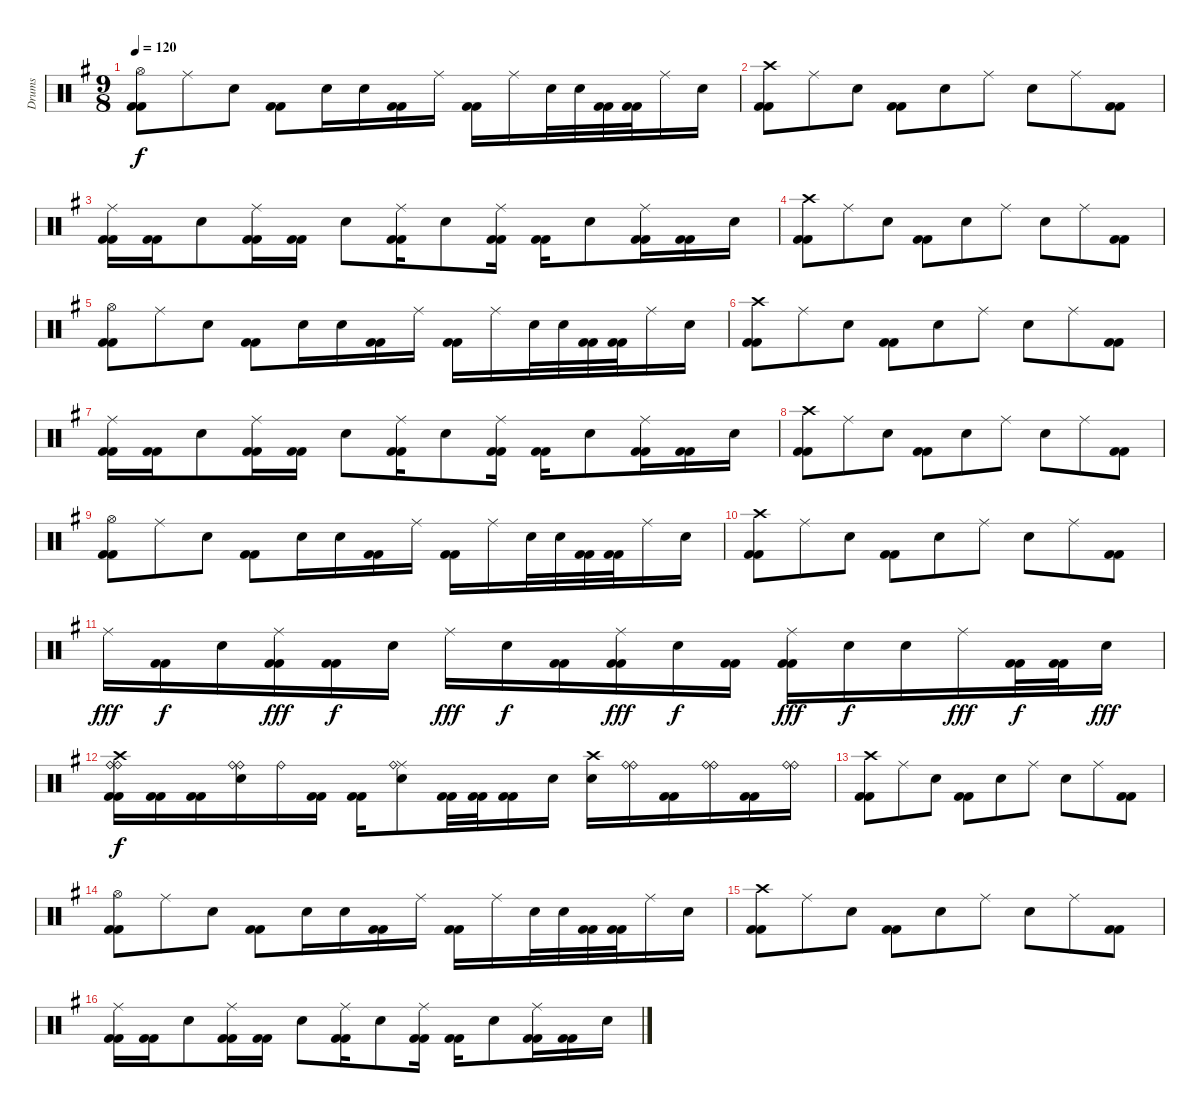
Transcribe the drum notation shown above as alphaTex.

\track ("Drums" "Drums") {instrument percussion}
\staff {score}
\articulation defaults
\ts (9 8)
\tempo 120
\clef neutral
\ks g
("Hi-Hat (open)" "Kick (hit) 2" "Kick (hit) 2").8{dy f} "Ride (middle)".8 "Electric Snare (hit)".8 ("Kick (hit) 2" "Kick (hit) 2").8 "Electric Snare (hit)".16 "Electric Snare (hit)".16 ("Kick (hit) 2" "Kick (hit) 2").16 "Ride (middle)".16 ("Kick (hit) 2" "Kick (hit) 2").16 "Ride (middle)".16 "Electric Snare (hit)".32 "Electric Snare (hit)".32 ("Kick (hit) 2" "Kick (hit) 2").32 ("Kick (hit) 2" "Kick (hit) 2").32 "Ride (middle)".16 "Electric Snare (hit)".16 |
("Crash high (hit)" "Kick (hit) 2" "Kick (hit) 2").8 "Ride (middle)".8 "Electric Snare (hit)".8 ("Kick (hit) 2" "Kick (hit) 2").8 "Electric Snare (hit)".8 "Ride (middle)".8 "Electric Snare (hit)".8 "Ride (middle)".8 ("Kick (hit) 2" "Kick (hit) 2").8 |
("Ride (middle)" "Kick (hit) 2" "Kick (hit) 2").16 ("Kick (hit) 2" "Kick (hit) 2").16 "Electric Snare (hit)".8 ("Ride (middle)" "Kick (hit) 2" "Kick (hit) 2").16 ("Kick (hit) 2" "Kick (hit) 2").16 "Electric Snare (hit)".8 ("Ride (middle)" "Kick (hit) 2" "Kick (hit) 2").16 "Electric Snare (hit)".8 ("Ride (middle)" "Kick (hit) 2" "Kick (hit) 2").16 ("Kick (hit) 2" "Kick (hit) 2").16 "Electric Snare (hit)".8 ("Ride (middle)" "Kick (hit) 2" "Kick (hit) 2").16 ("Kick (hit) 2" "Kick (hit) 2").16 "Electric Snare (hit)".16 |
("Crash high (hit)" "Kick (hit) 2" "Kick (hit) 2").8 "Ride (middle)".8 "Electric Snare (hit)".8 ("Kick (hit) 2" "Kick (hit) 2").8 "Electric Snare (hit)".8 "Ride (middle)".8 "Electric Snare (hit)".8 "Ride (middle)".8 ("Kick (hit) 2" "Kick (hit) 2").8 |
("Hi-Hat (open)" "Kick (hit) 2" "Kick (hit) 2").8 "Ride (middle)".8 "Electric Snare (hit)".8 ("Kick (hit) 2" "Kick (hit) 2").8 "Electric Snare (hit)".16 "Electric Snare (hit)".16 ("Kick (hit) 2" "Kick (hit) 2").16 "Ride (middle)".16 ("Kick (hit) 2" "Kick (hit) 2").16 "Ride (middle)".16 "Electric Snare (hit)".32 "Electric Snare (hit)".32 ("Kick (hit) 2" "Kick (hit) 2").32 ("Kick (hit) 2" "Kick (hit) 2").32 "Ride (middle)".16 "Electric Snare (hit)".16 |
("Crash high (hit)" "Kick (hit) 2" "Kick (hit) 2").8 "Ride (middle)".8 "Electric Snare (hit)".8 ("Kick (hit) 2" "Kick (hit) 2").8 "Electric Snare (hit)".8 "Ride (middle)".8 "Electric Snare (hit)".8 "Ride (middle)".8 ("Kick (hit) 2" "Kick (hit) 2").8 |
("Ride (middle)" "Kick (hit) 2" "Kick (hit) 2").16 ("Kick (hit) 2" "Kick (hit) 2").16 "Electric Snare (hit)".8 ("Ride (middle)" "Kick (hit) 2" "Kick (hit) 2").16 ("Kick (hit) 2" "Kick (hit) 2").16 "Electric Snare (hit)".8 ("Ride (middle)" "Kick (hit) 2" "Kick (hit) 2").16 "Electric Snare (hit)".8 ("Ride (middle)" "Kick (hit) 2" "Kick (hit) 2").16 ("Kick (hit) 2" "Kick (hit) 2").16 "Electric Snare (hit)".8 ("Ride (middle)" "Kick (hit) 2" "Kick (hit) 2").16 ("Kick (hit) 2" "Kick (hit) 2").16 "Electric Snare (hit)".16 |
("Crash high (hit)" "Kick (hit) 2" "Kick (hit) 2").8 "Ride (middle)".8 "Electric Snare (hit)".8 ("Kick (hit) 2" "Kick (hit) 2").8 "Electric Snare (hit)".8 "Ride (middle)".8 "Electric Snare (hit)".8 "Ride (middle)".8 ("Kick (hit) 2" "Kick (hit) 2").8 |
("Hi-Hat (open)" "Kick (hit) 2" "Kick (hit) 2").8 "Ride (middle)".8 "Electric Snare (hit)".8 ("Kick (hit) 2" "Kick (hit) 2").8 "Electric Snare (hit)".16 "Electric Snare (hit)".16 ("Kick (hit) 2" "Kick (hit) 2").16 "Ride (middle)".16 ("Kick (hit) 2" "Kick (hit) 2").16 "Ride (middle)".16 "Electric Snare (hit)".32 "Electric Snare (hit)".32 ("Kick (hit) 2" "Kick (hit) 2").32 ("Kick (hit) 2" "Kick (hit) 2").32 "Ride (middle)".16 "Electric Snare (hit)".16 |
("Crash high (hit)" "Kick (hit) 2" "Kick (hit) 2").8 "Ride (middle)".8 "Electric Snare (hit)".8 ("Kick (hit) 2" "Kick (hit) 2").8 "Electric Snare (hit)".8 "Ride (middle)".8 "Electric Snare (hit)".8 "Ride (middle)".8 ("Kick (hit) 2" "Kick (hit) 2").8 |
"Ride (middle)".16{dy fff volume 16} ("Kick (hit) 2" "Kick (hit) 2").16{dy f} "Electric Snare (hit)".16 ("Ride (middle)" "Kick (hit) 2" "Kick (hit) 2").16{dy fff} ("Kick (hit) 2" "Kick (hit) 2").16{dy f} "Electric Snare (hit)".16 "Ride (middle)".16{dy fff} "Electric Snare (hit)".16{dy f} ("Kick (hit) 2" "Kick (hit) 2").16 ("Ride (middle)" "Kick (hit) 2" "Kick (hit) 2").16{dy fff} "Electric Snare (hit)".16{dy f} ("Kick (hit) 2" "Kick (hit) 2").16 ("Ride (middle)" "Kick (hit) 2" "Kick (hit) 2").16{dy fff} "Electric Snare (hit)".16{dy f} "Electric Snare (hit)".16 "Ride (middle)".16{dy fff} ("Kick (hit) 2" "Kick (hit) 2").32{dy f} ("Kick (hit) 2" "Kick (hit) 2").32 "Electric Snare (hit)".16{dy fff} |
("Crash high (hit)" "Ride (bell)" "Ride (bell)" "Kick (hit) 2" "Kick (hit) 2").16{dy f volume 13} ("Kick (hit) 2" "Kick (hit) 2").16 ("Kick (hit) 2" "Kick (hit) 2").16 ("Ride (bell)" "Ride (bell)" "Electric Snare (hit)").16 "Ride (bell)".16 ("Kick (hit) 2" "Kick (hit) 2").16 ("Kick (hit) 2" "Kick (hit) 2").16 ("Ride (middle)" "Ride (bell)" "Electric Snare (hit)").8 ("Kick (hit) 2" "Kick (hit) 2").32 ("Kick (hit) 2" "Kick (hit) 2").32 ("Kick (hit) 2" "Kick (hit) 2").16 "Electric Snare (hit)".16 ("Crash high (hit)" "Electric Snare (hit)").16 ("Ride (bell)" "Ride (bell)").16 ("Kick (hit) 2" "Kick (hit) 2").16 ("Ride (bell)" "Ride (bell)").16 ("Kick (hit) 2" "Kick (hit) 2").16 ("Ride (bell)" "Ride (bell)").16 |
("Crash high (hit)" "Kick (hit) 2" "Kick (hit) 2").8 "Ride (middle)".8 "Electric Snare (hit)".8 ("Kick (hit) 2" "Kick (hit) 2").8 "Electric Snare (hit)".8 "Ride (middle)".8 "Electric Snare (hit)".8 "Ride (middle)".8 ("Kick (hit) 2" "Kick (hit) 2").8 |
("Hi-Hat (open)" "Kick (hit) 2" "Kick (hit) 2").8 "Ride (middle)".8 "Electric Snare (hit)".8 ("Kick (hit) 2" "Kick (hit) 2").8 "Electric Snare (hit)".16 "Electric Snare (hit)".16 ("Kick (hit) 2" "Kick (hit) 2").16 "Ride (middle)".16 ("Kick (hit) 2" "Kick (hit) 2").16 "Ride (middle)".16 "Electric Snare (hit)".32 "Electric Snare (hit)".32 ("Kick (hit) 2" "Kick (hit) 2").32 ("Kick (hit) 2" "Kick (hit) 2").32 "Ride (middle)".16 "Electric Snare (hit)".16 |
("Crash high (hit)" "Kick (hit) 2" "Kick (hit) 2").8 "Ride (middle)".8 "Electric Snare (hit)".8 ("Kick (hit) 2" "Kick (hit) 2").8 "Electric Snare (hit)".8 "Ride (middle)".8 "Electric Snare (hit)".8 "Ride (middle)".8 ("Kick (hit) 2" "Kick (hit) 2").8 |
("Ride (middle)" "Kick (hit) 2" "Kick (hit) 2").16 ("Kick (hit) 2" "Kick (hit) 2").16 "Electric Snare (hit)".8 ("Ride (middle)" "Kick (hit) 2" "Kick (hit) 2").16 ("Kick (hit) 2" "Kick (hit) 2").16 "Electric Snare (hit)".8 ("Ride (middle)" "Kick (hit) 2" "Kick (hit) 2").16 "Electric Snare (hit)".8 ("Ride (middle)" "Kick (hit) 2" "Kick (hit) 2").16 ("Kick (hit) 2" "Kick (hit) 2").16 "Electric Snare (hit)".8 ("Ride (middle)" "Kick (hit) 2" "Kick (hit) 2").16 ("Kick (hit) 2" "Kick (hit) 2").16 "Electric Snare (hit)".16
